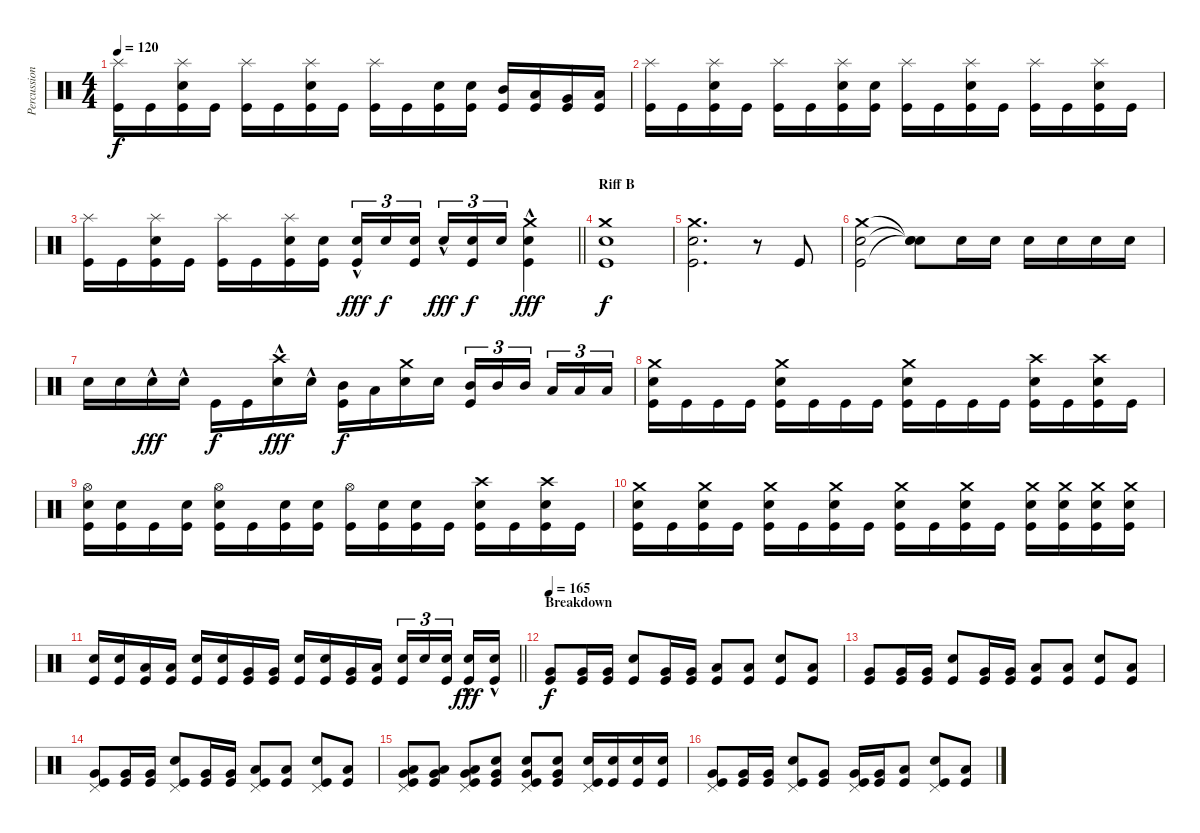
\track ("Percussion (Aksu)" "Percussion") {instrument percussion}
\staff {score}
\articulation defaults
\ts (4 4)
\tempo 120
\clef neutral
\ks c
("Splash (hit)" "Kick (hit)").16{dy f} "Kick (hit)".16 ("Splash (hit)" "Snare (hit) 2" "Kick (hit)").16 "Kick (hit)".16 ("Splash (hit)" "Kick (hit)").16 "Kick (hit)".16 ("Splash (hit)" "Snare (hit) 2" "Kick (hit)").16 "Kick (hit)".16 ("Splash (hit)" "Kick (hit)").16 "Kick (hit)".16 ("Snare (hit) 2" "Kick (hit)").16 ("Snare (hit) 2" "Kick (hit)").16 ("Mid Tom (hit)" "Kick (hit)").16 ("Low Tom (hit)" "Kick (hit)").16 ("Very Low Tom (hit)" "Kick (hit)").16 ("Low Floor Tom (hit)" "Kick (hit)").16 |
("Splash (hit)" "Kick (hit)").16 "Kick (hit)".16 ("Splash (hit)" "Snare (hit) 2" "Kick (hit)").16 "Kick (hit)".16 ("Splash (hit)" "Kick (hit)").16 "Kick (hit)".16 ("Splash (hit)" "Snare (hit) 2" "Kick (hit)").16 ("Snare (hit) 2" "Kick (hit)").16 ("Splash (hit)" "Kick (hit)").16 "Kick (hit)".16 ("Splash (hit)" "Snare (hit) 2" "Kick (hit)").16 "Kick (hit)".16 ("Splash (hit)" "Kick (hit)").16 "Kick (hit)".16 ("Splash (hit)" "Snare (hit) 2" "Kick (hit)").16 "Kick (hit)".16 |
\barLineRight lightlight
("Splash (hit)" "Kick (hit)").16 "Kick (hit)".16 ("Splash (hit)" "Snare (hit) 2" "Kick (hit)").16 "Kick (hit)".16 ("Splash (hit)" "Kick (hit)").16 "Kick (hit)".16 ("Splash (hit)" "Snare (hit) 2" "Kick (hit)").16 ("Snare (hit) 2" "Kick (hit)").16 ("Snare (hit) 2"{hac} "Kick (hit)").16{tu (3 2) dy fff} "Snare (hit) 2".16{tu (3 2) dy f} ("Snare (hit) 2" "Kick (hit)").16{tu (3 2) beam splitsecondary} "Snare (hit) 2"{hac}.16{tu (3 2) dy fff} ("Snare (hit) 2" "Kick (hit)").16{tu (3 2) dy f} "Snare (hit) 2".16{tu (3 2)} ("Crash medium (hit)" "Snare (hit) 2"{hac} "Kick (hit)").4{dy fff} |
\section ("" "Riff B")
("Crash medium (hit)" "Snare (hit) 2" "Kick (hit)").1{dy f} |
("Crash medium (hit)" "Snare (hit) 2" "Kick (hit)").2{d} r.8 "Kick (hit)".8 |
("Crash medium (hit)" "Snare (hit) 2" "Kick (hit)").2 ("Snare (hit)"{t} "Snare (hit)"{t} "Snare (hit)"{t}).8{volume 7} "Snare (hit) 2".16{volume 13} "Snare (hit) 2".16 "Snare (hit) 2".16 "Snare (hit) 2".16 "Snare (hit) 2".16 "Snare (hit) 2".16 |
"Snare (hit) 2".16 "Snare (hit) 2".16 "Snare (hit) 2"{hac}.16{dy fff} "Snare (hit) 2"{hac}.16 "Kick (hit)".16{dy f} "Kick (hit)".16 ("Crash high (hit)" "Snare (hit) 2"{hac}).16{dy fff} "Snare (hit) 2"{hac}.16 ("Mid Tom (hit)" "Kick (hit)").16{dy f} "Low Tom (hit)".16 ("Crash medium (hit)" "Snare (hit) 2").16 "Snare (hit) 2".16 ("Mid Tom (hit)" "Kick (hit)").16{tu (3 2)} "Mid Tom (hit)".16{tu (3 2)} "Mid Tom (hit)".16{tu (3 2) beam splitsecondary} "Low Tom (hit)".16{tu (3 2)} "Low Tom (hit)".16{tu (3 2)} "Low Tom (hit)".16{tu (3 2)} |
("Crash medium (hit)" "Snare (hit) 2" "Kick (hit)").16 "Kick (hit)".16 "Kick (hit)".16 "Kick (hit)".16 ("Crash medium (hit)" "Snare (hit) 2" "Kick (hit)").16 "Kick (hit)".16 "Kick (hit)".16 "Kick (hit)".16 ("Crash medium (hit)" "Snare (hit) 2" "Kick (hit)").16 "Kick (hit)".16 "Kick (hit)".16 "Kick (hit)".16 ("Crash high (hit)" "Snare (hit) 2" "Kick (hit)").16 "Kick (hit)".16 ("Crash high (hit)" "Snare (hit) 2" "Kick (hit)").16 "Kick (hit)".16 |
("Hi-Hat (open)" "Snare (hit) 2" "Kick (hit)").16 ("Snare (hit) 2" "Kick (hit)").16 "Kick (hit)".16 ("Snare (hit) 2" "Kick (hit)").16 ("Hi-Hat (open)" "Snare (hit) 2" "Kick (hit)").16 "Kick (hit)".16 ("Snare (hit) 2" "Kick (hit)").16 ("Snare (hit) 2" "Kick (hit)").16 ("Hi-Hat (open)" "Kick (hit)").16 ("Snare (hit) 2" "Kick (hit)").16 ("Snare (hit) 2" "Kick (hit)").16 "Kick (hit)".16 ("Crash high (hit)" "Snare (hit) 2" "Kick (hit)").16 "Kick (hit)".16 ("Crash high (hit)" "Snare (hit) 2" "Kick (hit)").16 "Kick (hit)".16 |
("Crash medium (hit)" "Snare (hit) 2" "Kick (hit)").16 "Kick (hit)".16 ("Crash medium (hit)" "Snare (hit) 2" "Kick (hit)").16 "Kick (hit)".16 ("Crash medium (hit)" "Snare (hit) 2" "Kick (hit)").16 "Kick (hit)".16 ("Crash medium (hit)" "Snare (hit) 2" "Kick (hit)").16 "Kick (hit)".16 ("Crash medium (hit)" "Snare (hit) 2" "Kick (hit)").16 "Kick (hit)".16 ("Crash medium (hit)" "Snare (hit) 2" "Kick (hit)").16 "Kick (hit)".16 ("Crash medium (hit)" "Snare (hit) 2" "Kick (hit)").16 ("Crash medium (hit)" "Snare (hit) 2" "Kick (hit)").16 ("Crash medium (hit)" "Snare (hit) 2" "Kick (hit)").16 ("Crash medium (hit)" "Snare (hit) 2" "Kick (hit)").16 |
\barLineRight lightlight
("Snare (hit) 2" "Kick (hit)").16 ("Snare (hit) 2" "Kick (hit)").16 ("Low Tom (hit)" "Kick (hit)").16 ("Low Tom (hit)" "Kick (hit)").16 ("Snare (hit) 2" "Kick (hit)").16 ("Snare (hit) 2" "Kick (hit)").16 ("Very Low Tom (hit)" "Kick (hit)").16 ("Very Low Tom (hit)" "Kick (hit)").16 ("Snare (hit) 2" "Kick (hit)").16 ("Snare (hit) 2" "Kick (hit)").16 ("Very Low Tom (hit)" "Kick (hit)").16 ("Low Floor Tom (hit)" "Kick (hit)").16 ("Snare (hit) 2" "Kick (hit)").16{tu (3 2)} "Snare (hit) 2".16{tu (3 2)} ("Snare (hit) 2" "Kick (hit)").16{tu (3 2) beam splitsecondary} ("Snare (hit) 2"{hac} "Kick (hit)").16{dy fff} ("Snare (hit) 2"{hac} "Kick (hit)").16 |
\section ("" "Breakdown")
\tempo 165
("Very Low Tom (hit)" "Kick (hit)").8{dy f volume 13} ("Very Low Tom (hit)" "Kick (hit)").16 ("Very Low Tom (hit)" "Kick (hit)").16 ("Snare (hit) 2" "Kick (hit)").8 ("Very Low Tom (hit)" "Kick (hit)").16 ("Very Low Tom (hit)" "Kick (hit)").16 ("Low Floor Tom (hit)" "Kick (hit)").8 ("Low Floor Tom (hit)" "Kick (hit)").8 ("Snare (hit) 2" "Kick (hit)").8 ("Low Tom (hit)" "Kick (hit)").8 |
("Very Low Tom (hit)" "Kick (hit)").8 ("Very Low Tom (hit)" "Kick (hit)").16 ("Very Low Tom (hit)" "Kick (hit)").16 ("Snare (hit) 2" "Kick (hit)").8 ("Very Low Tom (hit)" "Kick (hit)").16 ("Very Low Tom (hit)" "Kick (hit)").16 ("Low Floor Tom (hit)" "Kick (hit)").8 ("Low Floor Tom (hit)" "Kick (hit)").8 ("Snare (hit) 2" "Kick (hit)").8 ("Low Tom (hit)" "Kick (hit)").8 |
("Pedal Hi-Hat (hit)" "Very Low Tom (hit)" "Kick (hit)").8 ("Very Low Tom (hit)" "Kick (hit)").16 ("Very Low Tom (hit)" "Kick (hit)").16 ("Pedal Hi-Hat (hit)" "Snare (hit) 2" "Kick (hit)").8 ("Very Low Tom (hit)" "Kick (hit)").16 ("Very Low Tom (hit)" "Kick (hit)").16 ("Pedal Hi-Hat (hit)" "Low Floor Tom (hit)" "Kick (hit)").8 ("Low Floor Tom (hit)" "Kick (hit)").8 ("Pedal Hi-Hat (hit)" "Snare (hit) 2" "Kick (hit)").8 ("Low Tom (hit)" "Kick (hit)").8 |
("Pedal Hi-Hat (hit)" "Low Tom (hit)" "Very Low Tom (hit)" "Kick (hit)").8{volume 6} ("Low Tom (hit)" "Very Low Tom (hit)" "Kick (hit)").8{volume 16} ("Pedal Hi-Hat (hit)" "Low Tom (hit)" "Very Low Tom (hit)" "Kick (hit)").8 ("Very Low Tom (hit)" "Snare (hit) 2" "Kick (hit)").8 ("Pedal Hi-Hat (hit)" "Very Low Tom (hit)" "Snare (hit) 2" "Kick (hit)").8 ("Very Low Tom (hit)" "Snare (hit) 2" "Kick (hit)").8 ("Pedal Hi-Hat (hit)" "Snare (hit) 2" "Kick (hit)").16 ("Snare (hit) 2" "Kick (hit)").16 ("Snare (hit) 2" "Kick (hit)").16 ("Snare (hit) 2" "Kick (hit)").16 |
("Pedal Hi-Hat (hit)" "Very Low Tom (hit)" "Kick (hit)").8{volume 13} ("Very Low Tom (hit)" "Kick (hit)").16 ("Very Low Tom (hit)" "Kick (hit)").16 ("Pedal Hi-Hat (hit)" "Snare (hit) 2" "Kick (hit)").8 ("Very Low Tom (hit)" "Kick (hit)").8 ("Pedal Hi-Hat (hit)" "Very Low Tom (hit)" "Kick (hit)").16 ("Very Low Tom (hit)" "Kick (hit)").16 ("Low Floor Tom (hit)" "Kick (hit)").8 ("Pedal Hi-Hat (hit)" "Snare (hit) 2" "Kick (hit)").8 ("Low Tom (hit)" "Kick (hit)").8
